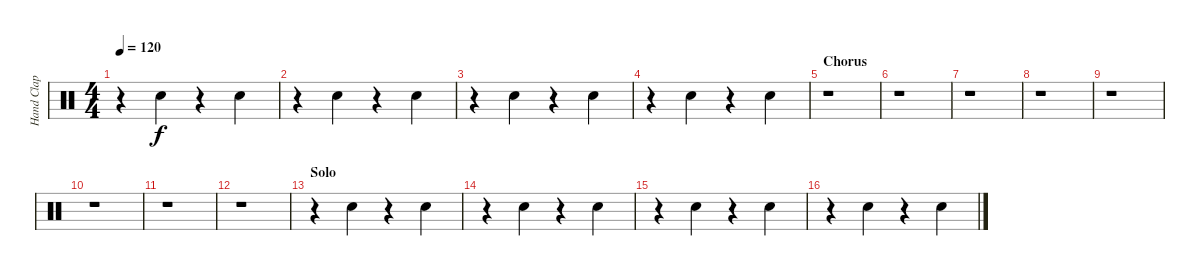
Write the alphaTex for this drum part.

\track ("Hand Clap" "Hand Clap") {instrument percussion}
\staff {score}
\articulation defaults
\ts (4 4)
\tempo 120
\clef neutral
\ks c
r.4{dy f} "Hand Clap (hit)".4 r.4 "Hand Clap (hit)".4 |
r.4 "Hand Clap (hit)".4 r.4 "Hand Clap (hit)".4 |
r.4 "Hand Clap (hit)".4 r.4 "Hand Clap (hit)".4 |
r.4 "Hand Clap (hit)".4 r.4 "Hand Clap (hit)".4 |
\section ("" "Chorus")
r.1 |
r.1 |
r.1 |
r.1 |
r.1 |
r.1 |
r.1 |
r.1 |
\section ("" "Solo")
r.4 "Hand Clap (hit)".4 r.4 "Hand Clap (hit)".4 |
r.4 "Hand Clap (hit)".4 r.4 "Hand Clap (hit)".4 |
r.4 "Hand Clap (hit)".4 r.4 "Hand Clap (hit)".4 |
r.4 "Hand Clap (hit)".4 r.4 "Hand Clap (hit)".4
